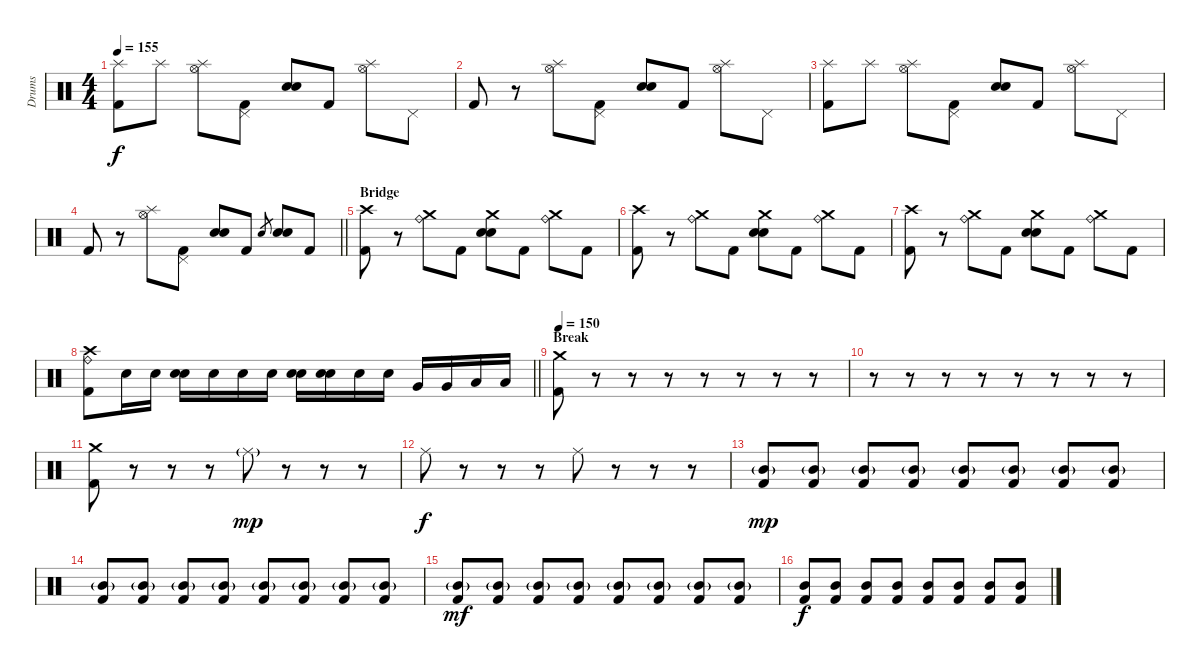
\track ("Drums" "Drums") {instrument percussion}
\staff {score}
\articulation defaults
\ts (4 4)
\tempo 155
\clef neutral
\ks c
("Splash (hit)" "Kick (hit) 2").8{dy f} "Splash (hit)".8 ("Splash (hit)" "Hi-Hat (open)").8 ("Pedal Hi-Hat (hit)" "Kick (hit) 2").8 ("Snare (hit) 2" "Electric Snare (hit)").8 "Kick (hit) 2".8 ("Splash (hit)" "Hi-Hat (open)").8 "Pedal Hi-Hat (hit)".8 |
"Kick (hit) 2".8 r.8 ("Splash (hit)" "Hi-Hat (open)").8 ("Pedal Hi-Hat (hit)" "Kick (hit) 2").8 ("Snare (hit) 2" "Electric Snare (hit)").8 "Kick (hit) 2".8 ("Splash (hit)" "Hi-Hat (open)").8 "Pedal Hi-Hat (hit)".8 |
("Splash (hit)" "Kick (hit) 2").8 "Splash (hit)".8 ("Splash (hit)" "Hi-Hat (open)").8 ("Pedal Hi-Hat (hit)" "Kick (hit) 2").8 ("Snare (hit) 2" "Electric Snare (hit)").8 "Kick (hit) 2".8 ("Splash (hit)" "Hi-Hat (open)").8 "Pedal Hi-Hat (hit)".8 |
\barLineRight lightlight "Kick (hit) 2".8
r.8 ("Splash (hit)" "Hi-Hat (open)").8 ("Pedal Hi-Hat (hit)" "Kick (hit) 2").8 ("Snare (hit) 2" "Electric Snare (hit)").8 "Kick (hit) 2".8 "Electric Snare (hit)".8{gr} ("Snare (hit) 2" "Electric Snare (hit)").8 "Kick (hit) 2".8 |
\section ("" "Bridge")
("Crash high (hit)" "Kick (hit) 2").8 r.8 ("Crash medium (hit)" "Ride (bell)").8 "Kick (hit) 2".8 ("Crash medium (hit)" "Snare (hit) 2" "Electric Snare (hit)").8 "Kick (hit) 2".8 ("Crash medium (hit)" "Ride (bell)").8 "Kick (hit) 2".8 |
("Crash high (hit)" "Kick (hit) 2").8 r.8 ("Crash medium (hit)" "Ride (bell)").8 "Kick (hit) 2".8 ("Crash medium (hit)" "Snare (hit) 2" "Electric Snare (hit)").8 "Kick (hit) 2".8 ("Crash medium (hit)" "Ride (bell)").8 "Kick (hit) 2".8 |
("Crash high (hit)" "Kick (hit) 2").8 r.8 ("Crash medium (hit)" "Ride (bell)").8 "Kick (hit) 2".8 ("Crash medium (hit)" "Snare (hit) 2" "Electric Snare (hit)").8 "Kick (hit) 2".8 ("Crash medium (hit)" "Ride (bell)").8 "Kick (hit) 2".8 |
\barLineRight lightlight
("Crash high (hit)" "Ride (bell)" "Kick (hit) 2").8 "Snare (hit) 2".16 "Snare (hit) 2".16 ("Electric Snare (hit)" "Snare (hit) 2").16 "Snare (hit) 2".16 "Snare (hit) 2".16 "Snare (hit) 2".16 ("Electric Snare (hit)" "Snare (hit) 2").16 ("Electric Snare (hit)" "Snare (hit) 2").16 "Snare (hit) 2".16 "Snare (hit) 2".16 "Very Low Tom (hit)".16 "Very Low Tom (hit)".16 "Low Floor Tom (hit)".16 "Low Floor Tom (hit)".16 |
\section ("" "Break")
\tempo 150
("Crash medium (hit)" "Kick (hit) 2").8 r.8 r.8 r.8 r.8 r.8 r.8 r.8 |
r.8 r.8 r.8 r.8 r.8 r.8 r.8 r.8 |
("Crash medium (hit)" "Kick (hit) 2").8 r.8 r.8 r.8 "Ride (middle)"{g}.8{dy mp} r.8 r.8 r.8 |
"Ride (middle)".8{dy f} r.8 r.8 r.8 "Ride (middle)".8 r.8 r.8 r.8 |
("Mid Tom (hit)"{g} "Kick (hit) 2").8{dy mp} ("Mid Tom (hit)"{g} "Kick (hit) 2").8 ("Mid Tom (hit)"{g} "Kick (hit) 2").8 ("Mid Tom (hit)"{g} "Kick (hit) 2").8 ("Mid Tom (hit)"{g} "Kick (hit) 2").8 ("Mid Tom (hit)"{g} "Kick (hit) 2").8 ("Mid Tom (hit)"{g} "Kick (hit) 2").8 ("Mid Tom (hit)"{g} "Kick (hit) 2").8 |
("Mid Tom (hit)"{g} "Kick (hit) 2").8 ("Mid Tom (hit)"{g} "Kick (hit) 2").8 ("Mid Tom (hit)"{g} "Kick (hit) 2").8 ("Mid Tom (hit)"{g} "Kick (hit) 2").8 ("Mid Tom (hit)"{g} "Kick (hit) 2").8 ("Mid Tom (hit)"{g} "Kick (hit) 2").8 ("Mid Tom (hit)"{g} "Kick (hit) 2").8 ("Mid Tom (hit)"{g} "Kick (hit) 2").8 |
("Mid Tom (hit)"{g} "Kick (hit) 2").8{dy mf} ("Mid Tom (hit)"{g} "Kick (hit) 2").8 ("Mid Tom (hit)"{g} "Kick (hit) 2").8 ("Mid Tom (hit)"{g} "Kick (hit) 2").8 ("Mid Tom (hit)"{g} "Kick (hit) 2").8 ("Mid Tom (hit)"{g} "Kick (hit) 2").8 ("Mid Tom (hit)"{g} "Kick (hit) 2").8 ("Mid Tom (hit)"{g} "Kick (hit) 2").8 |
("Mid Tom (hit)" "Kick (hit) 2").8{dy f} ("Mid Tom (hit)" "Kick (hit) 2").8 ("Mid Tom (hit)" "Kick (hit) 2").8 ("Mid Tom (hit)" "Kick (hit) 2").8 ("Mid Tom (hit)" "Kick (hit) 2").8 ("Mid Tom (hit)" "Kick (hit) 2").8 ("Mid Tom (hit)" "Kick (hit) 2").8 ("Mid Tom (hit)" "Kick (hit) 2").8
